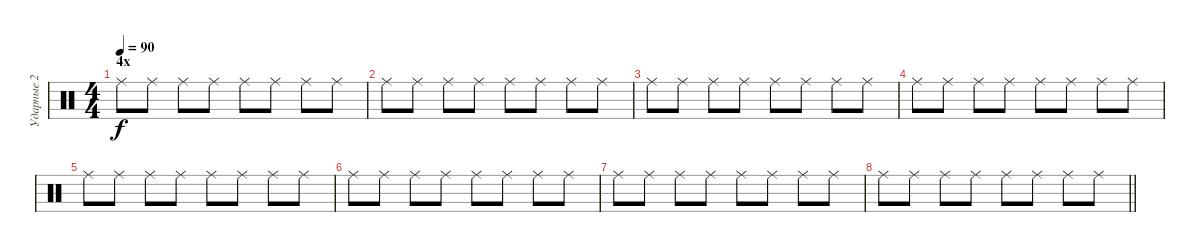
\track ("Ударные 2" "Ударные 2") {instrument percussion}
\staff {score}
\articulation defaults
\ts (4 4)
\section ("" "4х")
\tempo 90
\clef neutral
\ks c "Ride (middle)".8{dy f} "Ride (middle)".8 "Ride (middle)".8 "Ride (middle)".8 "Ride (middle)".8 "Ride (middle)".8 "Ride (middle)".8 "Ride (middle)".8
|
"Ride (middle)".8 "Ride (middle)".8 "Ride (middle)".8 "Ride (middle)".8 "Ride (middle)".8 "Ride (middle)".8 "Ride (middle)".8 "Ride (middle)".8 |
"Ride (middle)".8 "Ride (middle)".8 "Ride (middle)".8 "Ride (middle)".8 "Ride (middle)".8 "Ride (middle)".8 "Ride (middle)".8 "Ride (middle)".8 |
"Ride (middle)".8 "Ride (middle)".8 "Ride (middle)".8 "Ride (middle)".8 "Ride (middle)".8 "Ride (middle)".8 "Ride (middle)".8 "Ride (middle)".8 |
"Ride (middle)".8 "Ride (middle)".8 "Ride (middle)".8 "Ride (middle)".8 "Ride (middle)".8 "Ride (middle)".8 "Ride (middle)".8 "Ride (middle)".8 |
"Ride (middle)".8 "Ride (middle)".8 "Ride (middle)".8 "Ride (middle)".8 "Ride (middle)".8 "Ride (middle)".8 "Ride (middle)".8 "Ride (middle)".8 |
"Ride (middle)".8 "Ride (middle)".8 "Ride (middle)".8 "Ride (middle)".8 "Ride (middle)".8 "Ride (middle)".8 "Ride (middle)".8 "Ride (middle)".8 |
\barLineRight lightlight "Ride (middle)".8 "Ride (middle)".8 "Ride (middle)".8 "Ride (middle)".8 "Ride (middle)".8 "Ride (middle)".8 "Ride (middle)".8 "Ride (middle)".8
